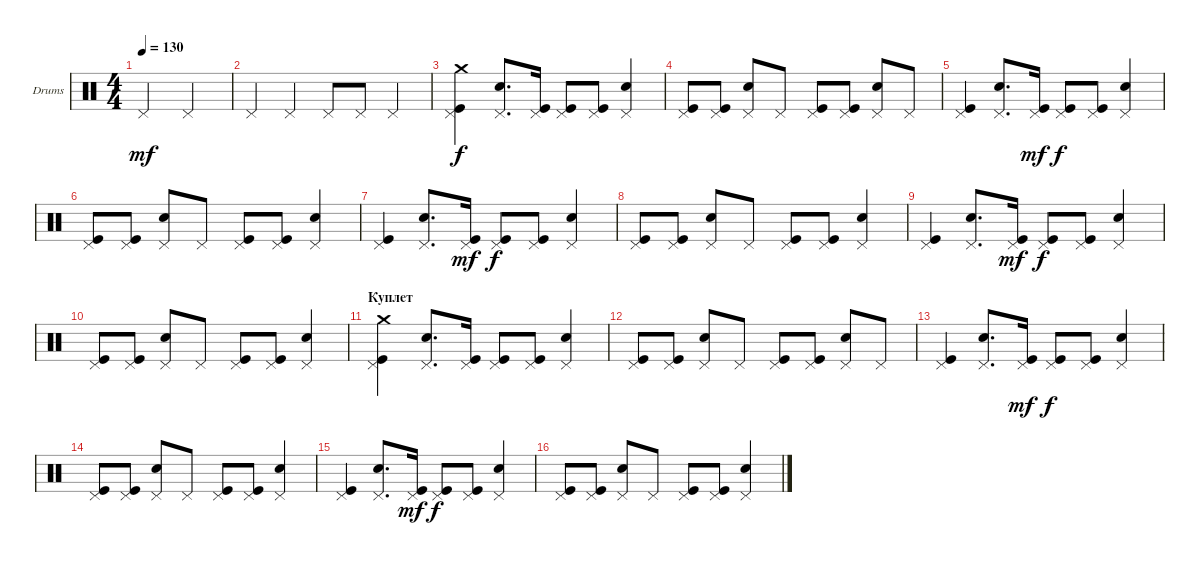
\defaultSystemsLayout 4
\bracketExtendMode groupsimilarinstruments
\firstSystemTrackNameOrientation horizontal
\otherSystemsTrackNameOrientation horizontal
\track ("Е. Кулаков" "Drums") {instrument percussion}
\staff {score}
\articulation defaults
\ts (4 4)
\tempo 130
\clef neutral
\ks c "Pedal Hi-Hat (hit)".2{dy mf} "Pedal Hi-Hat (hit)".2
|
"Pedal Hi-Hat (hit)".4 "Pedal Hi-Hat (hit)".4 "Pedal Hi-Hat (hit)".8 "Pedal Hi-Hat (hit)".8 "Pedal Hi-Hat (hit)".4 |
("Kick (hit)" "Pedal Hi-Hat (hit)" "Crash medium (hit)").4{dy f} ("Snare (hit) 2" "Pedal Hi-Hat (hit)").8{d} ("Kick (hit)" "Pedal Hi-Hat (hit)").16 ("Kick (hit)" "Pedal Hi-Hat (hit)").8 ("Kick (hit)" "Pedal Hi-Hat (hit)").8 ("Snare (hit) 2" "Pedal Hi-Hat (hit)").4 |
("Kick (hit)" "Pedal Hi-Hat (hit)").8 ("Kick (hit)" "Pedal Hi-Hat (hit)").8 ("Snare (hit) 2" "Pedal Hi-Hat (hit)").8 "Pedal Hi-Hat (hit)".8 ("Kick (hit)" "Pedal Hi-Hat (hit)").8 ("Kick (hit)" "Pedal Hi-Hat (hit)").8 ("Snare (hit) 2" "Pedal Hi-Hat (hit)").8 "Pedal Hi-Hat (hit)".8 |
("Kick (hit)" "Pedal Hi-Hat (hit)").4 ("Snare (hit) 2" "Pedal Hi-Hat (hit)").8{d} ("Kick (hit)" "Pedal Hi-Hat (hit)").16{dy mf} ("Kick (hit)" "Pedal Hi-Hat (hit)").8{dy f} ("Kick (hit)" "Pedal Hi-Hat (hit)").8 ("Snare (hit) 2" "Pedal Hi-Hat (hit)").4 |
("Kick (hit)" "Pedal Hi-Hat (hit)").8 ("Kick (hit)" "Pedal Hi-Hat (hit)").8 ("Snare (hit) 2" "Pedal Hi-Hat (hit)").8 "Pedal Hi-Hat (hit)".8 ("Kick (hit)" "Pedal Hi-Hat (hit)").8 ("Kick (hit)" "Pedal Hi-Hat (hit)").8 ("Snare (hit) 2" "Pedal Hi-Hat (hit)").4 |
("Kick (hit)" "Pedal Hi-Hat (hit)").4 ("Snare (hit) 2" "Pedal Hi-Hat (hit)").8{d} ("Kick (hit)" "Pedal Hi-Hat (hit)").16{dy mf} ("Kick (hit)" "Pedal Hi-Hat (hit)").8{dy f} ("Kick (hit)" "Pedal Hi-Hat (hit)").8 ("Snare (hit) 2" "Pedal Hi-Hat (hit)").4 |
("Kick (hit)" "Pedal Hi-Hat (hit)").8 ("Kick (hit)" "Pedal Hi-Hat (hit)").8 ("Snare (hit) 2" "Pedal Hi-Hat (hit)").8 "Pedal Hi-Hat (hit)".8 ("Kick (hit)" "Pedal Hi-Hat (hit)").8 ("Kick (hit)" "Pedal Hi-Hat (hit)").8 ("Snare (hit) 2" "Pedal Hi-Hat (hit)").4 |
("Kick (hit)" "Pedal Hi-Hat (hit)").4 ("Snare (hit) 2" "Pedal Hi-Hat (hit)").8{d} ("Kick (hit)" "Pedal Hi-Hat (hit)").16{dy mf} ("Kick (hit)" "Pedal Hi-Hat (hit)").8{dy f} ("Kick (hit)" "Pedal Hi-Hat (hit)").8 ("Snare (hit) 2" "Pedal Hi-Hat (hit)").4 |
("Kick (hit)" "Pedal Hi-Hat (hit)").8 ("Kick (hit)" "Pedal Hi-Hat (hit)").8 ("Snare (hit) 2" "Pedal Hi-Hat (hit)").8 "Pedal Hi-Hat (hit)".8 ("Kick (hit)" "Pedal Hi-Hat (hit)").8 ("Kick (hit)" "Pedal Hi-Hat (hit)").8 ("Snare (hit) 2" "Pedal Hi-Hat (hit)").4 |
\section ("" "Куплет")
("Kick (hit)" "Pedal Hi-Hat (hit)" "Crash medium (hit)").4 ("Snare (hit) 2" "Pedal Hi-Hat (hit)").8{d} ("Kick (hit)" "Pedal Hi-Hat (hit)").16 ("Kick (hit)" "Pedal Hi-Hat (hit)").8 ("Kick (hit)" "Pedal Hi-Hat (hit)").8 ("Snare (hit) 2" "Pedal Hi-Hat (hit)").4 |
("Kick (hit)" "Pedal Hi-Hat (hit)").8 ("Kick (hit)" "Pedal Hi-Hat (hit)").8 ("Snare (hit) 2" "Pedal Hi-Hat (hit)").8 "Pedal Hi-Hat (hit)".8 ("Kick (hit)" "Pedal Hi-Hat (hit)").8 ("Kick (hit)" "Pedal Hi-Hat (hit)").8 ("Snare (hit) 2" "Pedal Hi-Hat (hit)").8 "Pedal Hi-Hat (hit)".8 |
("Kick (hit)" "Pedal Hi-Hat (hit)").4 ("Snare (hit) 2" "Pedal Hi-Hat (hit)").8{d} ("Kick (hit)" "Pedal Hi-Hat (hit)").16{dy mf} ("Kick (hit)" "Pedal Hi-Hat (hit)").8{dy f} ("Kick (hit)" "Pedal Hi-Hat (hit)").8 ("Snare (hit) 2" "Pedal Hi-Hat (hit)").4 |
("Kick (hit)" "Pedal Hi-Hat (hit)").8 ("Kick (hit)" "Pedal Hi-Hat (hit)").8 ("Snare (hit) 2" "Pedal Hi-Hat (hit)").8 "Pedal Hi-Hat (hit)".8 ("Kick (hit)" "Pedal Hi-Hat (hit)").8 ("Kick (hit)" "Pedal Hi-Hat (hit)").8 ("Snare (hit) 2" "Pedal Hi-Hat (hit)").4 |
("Kick (hit)" "Pedal Hi-Hat (hit)").4 ("Snare (hit) 2" "Pedal Hi-Hat (hit)").8{d} ("Kick (hit)" "Pedal Hi-Hat (hit)").16{dy mf} ("Kick (hit)" "Pedal Hi-Hat (hit)").8{dy f} ("Kick (hit)" "Pedal Hi-Hat (hit)").8 ("Snare (hit) 2" "Pedal Hi-Hat (hit)").4 |
("Kick (hit)" "Pedal Hi-Hat (hit)").8 ("Kick (hit)" "Pedal Hi-Hat (hit)").8 ("Snare (hit) 2" "Pedal Hi-Hat (hit)").8 "Pedal Hi-Hat (hit)".8 ("Kick (hit)" "Pedal Hi-Hat (hit)").8 ("Kick (hit)" "Pedal Hi-Hat (hit)").8 ("Snare (hit) 2" "Pedal Hi-Hat (hit)").4
